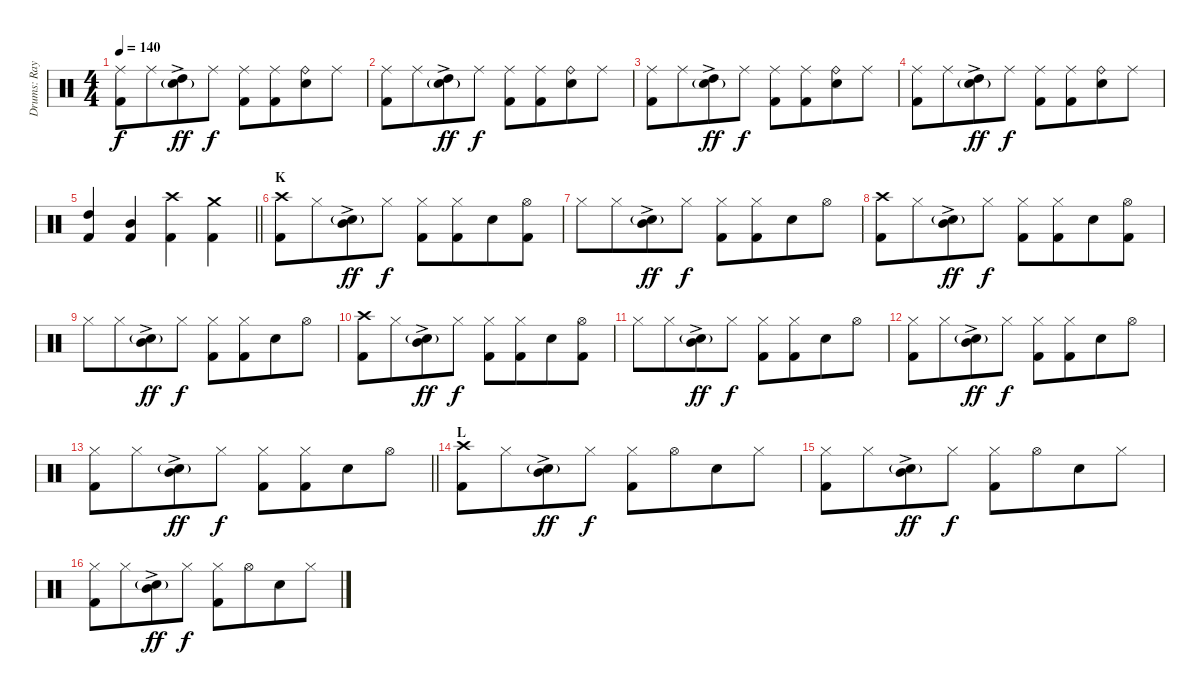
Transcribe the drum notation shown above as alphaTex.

\track ("Drums: Ray Cooper" "Drums: Ray") {instrument percussion}
\staff {score}
\articulation defaults
\ts (4 4)
\tempo 140
\clef neutral
\ks c
("Ride (middle)" "Kick (hit) 2").8{dy f} "Ride (middle)".8{beam merge} ("Electric Snare (hit)"{g} "High Tom (hit)"{ac}).8{dy ff} "Ride (middle)".8{dy f} ("Ride (middle)" "Kick (hit) 2").8 ("Ride (middle)" "Kick (hit) 2").8{beam merge} ("Ride (bell)" "Snare (hit) 2").8 "Ride (middle)".8 |
("Ride (middle)" "Kick (hit) 2").8 "Ride (middle)".8{beam merge} ("Electric Snare (hit)"{g} "High Tom (hit)"{ac}).8{dy ff} "Ride (middle)".8{dy f} ("Ride (middle)" "Kick (hit) 2").8 ("Ride (middle)" "Kick (hit) 2").8{beam merge} ("Ride (bell)" "Snare (hit) 2").8 "Ride (middle)".8 |
("Ride (middle)" "Kick (hit) 2").8 "Ride (middle)".8{beam merge} ("Electric Snare (hit)"{g} "High Tom (hit)"{ac}).8{dy ff} "Ride (middle)".8{dy f} ("Ride (middle)" "Kick (hit) 2").8 ("Ride (middle)" "Kick (hit) 2").8{beam merge} ("Ride (bell)" "Snare (hit) 2").8 "Ride (middle)".8 |
("Ride (middle)" "Kick (hit) 2").8 "Ride (middle)".8{beam merge} ("Electric Snare (hit)"{g} "High Tom (hit)"{ac}).8{dy ff} "Ride (middle)".8{dy f} ("Ride (middle)" "Kick (hit) 2").8 ("Ride (middle)" "Kick (hit) 2").8{beam merge} ("Ride (bell)" "Snare (hit) 2").8 "Ride (middle)".8 |
\barLineRight lightlight
("High Tom (hit)" "Kick (hit) 2").4 ("Mid Tom (hit)" "Kick (hit) 2").4 ("Crash high (hit)" "Kick (hit) 2").4 ("Crash medium (hit)" "Kick (hit) 2").4 |
\section ("" "K")
("Crash high (hit)" "Kick (hit) 2").8 "Hi-Hat (closed)".8{beam merge} ("Electric Snare (hit)"{g} "Mid Tom (hit)"{ac}).8{dy ff} "Hi-Hat (closed)".8{dy f} ("Hi-Hat (closed)" "Kick (hit) 2").8 ("Hi-Hat (closed)" "Kick (hit) 2").8{beam merge} "Snare (hit) 2".8 ("Hi-Hat (open)" "Kick (hit) 2").8 |
"Hi-Hat (closed)".8 "Hi-Hat (closed)".8{beam merge} ("Electric Snare (hit)"{g} "Mid Tom (hit)"{ac}).8{dy ff} "Hi-Hat (closed)".8{dy f} ("Hi-Hat (closed)" "Kick (hit) 2").8 ("Hi-Hat (closed)" "Kick (hit) 2").8{beam merge} "Snare (hit) 2".8 "Hi-Hat (open)".8 |
("Crash high (hit)" "Kick (hit) 2").8 "Hi-Hat (closed)".8{beam merge} ("Electric Snare (hit)"{g} "Mid Tom (hit)"{ac}).8{dy ff} "Hi-Hat (closed)".8{dy f} ("Hi-Hat (closed)" "Kick (hit) 2").8 ("Hi-Hat (closed)" "Kick (hit) 2").8{beam merge} "Snare (hit) 2".8 ("Hi-Hat (open)" "Kick (hit) 2").8 |
"Hi-Hat (closed)".8 "Hi-Hat (closed)".8{beam merge} ("Electric Snare (hit)"{g} "Mid Tom (hit)"{ac}).8{dy ff} "Hi-Hat (closed)".8{dy f} ("Hi-Hat (closed)" "Kick (hit) 2").8 ("Hi-Hat (closed)" "Kick (hit) 2").8{beam merge} "Snare (hit) 2".8 "Hi-Hat (open)".8 |
("Crash high (hit)" "Kick (hit) 2").8 "Hi-Hat (closed)".8{beam merge} ("Electric Snare (hit)"{g} "Mid Tom (hit)"{ac}).8{dy ff} "Hi-Hat (closed)".8{dy f} ("Hi-Hat (closed)" "Kick (hit) 2").8 ("Hi-Hat (closed)" "Kick (hit) 2").8{beam merge} "Snare (hit) 2".8 ("Hi-Hat (open)" "Kick (hit) 2").8 |
"Hi-Hat (closed)".8 "Hi-Hat (closed)".8{beam merge} ("Electric Snare (hit)"{g} "Mid Tom (hit)"{ac}).8{dy ff} "Hi-Hat (closed)".8{dy f} ("Hi-Hat (closed)" "Kick (hit) 2").8 ("Hi-Hat (closed)" "Kick (hit) 2").8{beam merge} "Snare (hit) 2".8 "Hi-Hat (open)".8 |
("Hi-Hat (closed)" "Kick (hit) 2").8 "Hi-Hat (closed)".8{beam merge} ("Electric Snare (hit)"{g} "Mid Tom (hit)"{ac}).8{dy ff} "Hi-Hat (closed)".8{dy f} ("Hi-Hat (closed)" "Kick (hit) 2").8 ("Hi-Hat (closed)" "Kick (hit) 2").8{beam merge} "Snare (hit) 2".8 "Hi-Hat (open)".8 |
\barLineRight lightlight
("Hi-Hat (closed)" "Kick (hit) 2").8 "Hi-Hat (closed)".8{beam merge} ("Electric Snare (hit)"{g} "Mid Tom (hit)"{ac}).8{dy ff} "Hi-Hat (closed)".8{dy f} ("Hi-Hat (closed)" "Kick (hit) 2").8 ("Hi-Hat (closed)" "Kick (hit) 2").8{beam merge} "Snare (hit) 2".8 "Hi-Hat (open)".8 |
\section ("" "L")
("Crash high (hit)" "Kick (hit) 2").8 "Hi-Hat (closed)".8{beam merge} ("Electric Snare (hit)"{g} "Mid Tom (hit)"{ac}).8{dy ff} "Hi-Hat (closed)".8{dy f} ("Hi-Hat (closed)" "Kick (hit) 2").8 "Hi-Hat (open)".8{beam merge} "Snare (hit) 2".8 "Hi-Hat (closed)".8 |
("Hi-Hat (closed)" "Kick (hit) 2").8 "Hi-Hat (closed)".8{beam merge} ("Electric Snare (hit)"{g} "Mid Tom (hit)"{ac}).8{dy ff} "Hi-Hat (closed)".8{dy f} ("Hi-Hat (closed)" "Kick (hit) 2").8 "Hi-Hat (open)".8{beam merge} "Snare (hit) 2".8 "Hi-Hat (closed)".8 |
("Hi-Hat (closed)" "Kick (hit) 2").8 "Hi-Hat (closed)".8{beam merge} ("Electric Snare (hit)"{g} "Mid Tom (hit)"{ac}).8{dy ff} "Hi-Hat (closed)".8{dy f} ("Hi-Hat (closed)" "Kick (hit) 2").8 "Hi-Hat (open)".8{beam merge} "Snare (hit) 2".8 "Hi-Hat (closed)".8
